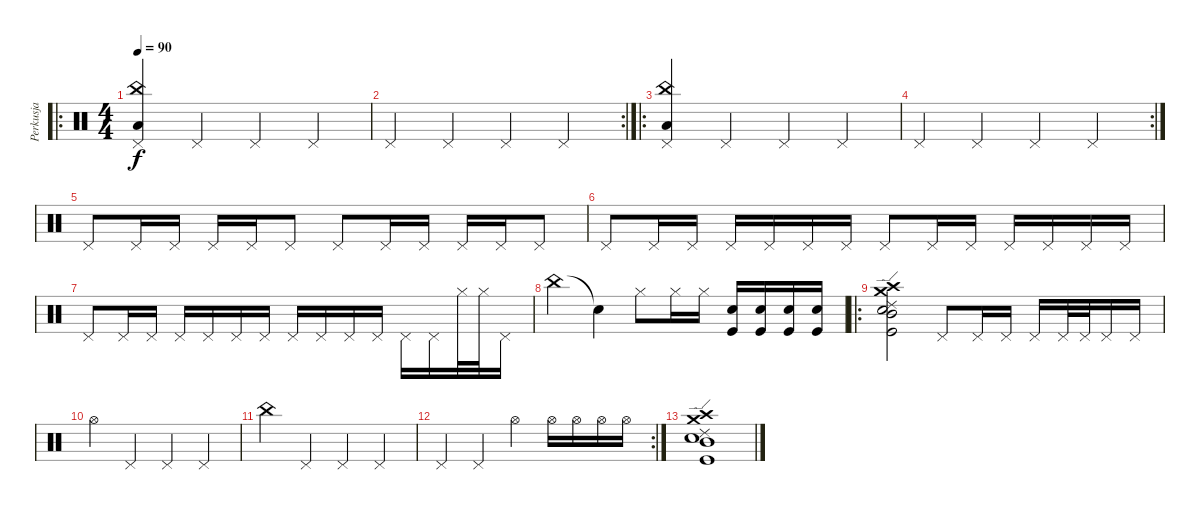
\track ("Perkusja" "Perkusja") {instrument percussion}
\staff {score}
\articulation defaults
\ro
\ts (4 4)
\tempo 90
\clef neutral
\ks c
("Pedal Hi-Hat (hit)" "China (hit)" "Low Tom (hit)").4{dy f} "Pedal Hi-Hat (hit)".4 "Pedal Hi-Hat (hit)".4 "Pedal Hi-Hat (hit)".4 |
\rc 2 "Pedal Hi-Hat (hit)".4 "Pedal Hi-Hat (hit)".4 "Pedal Hi-Hat (hit)".4 "Pedal Hi-Hat (hit)".4
|
\ro
("China (hit)" "Pedal Hi-Hat (hit)" "Low Tom (hit)").4 "Pedal Hi-Hat (hit)".4 "Pedal Hi-Hat (hit)".4 "Pedal Hi-Hat (hit)".4 |
\rc 2 "Pedal Hi-Hat (hit)".4 "Pedal Hi-Hat (hit)".4 "Pedal Hi-Hat (hit)".4 "Pedal Hi-Hat (hit)".4
|
"Pedal Hi-Hat (hit)".8 "Pedal Hi-Hat (hit)".16 "Pedal Hi-Hat (hit)".16 "Pedal Hi-Hat (hit)".16 "Pedal Hi-Hat (hit)".16 "Pedal Hi-Hat (hit)".8 "Pedal Hi-Hat (hit)".8 "Pedal Hi-Hat (hit)".16 "Pedal Hi-Hat (hit)".16 "Pedal Hi-Hat (hit)".16 "Pedal Hi-Hat (hit)".16 "Pedal Hi-Hat (hit)".8 |
"Pedal Hi-Hat (hit)".8 "Pedal Hi-Hat (hit)".16 "Pedal Hi-Hat (hit)".16 "Pedal Hi-Hat (hit)".16 "Pedal Hi-Hat (hit)".16 "Pedal Hi-Hat (hit)".16 "Pedal Hi-Hat (hit)".16 "Pedal Hi-Hat (hit)".8 "Pedal Hi-Hat (hit)".16 "Pedal Hi-Hat (hit)".16 "Pedal Hi-Hat (hit)".16 "Pedal Hi-Hat (hit)".16 "Pedal Hi-Hat (hit)".16 "Pedal Hi-Hat (hit)".16 |
"Pedal Hi-Hat (hit)".8 "Pedal Hi-Hat (hit)".16 "Pedal Hi-Hat (hit)".16 "Pedal Hi-Hat (hit)".16 "Pedal Hi-Hat (hit)".16 "Pedal Hi-Hat (hit)".16 "Pedal Hi-Hat (hit)".16 "Pedal Hi-Hat (hit)".16 "Pedal Hi-Hat (hit)".16 "Pedal Hi-Hat (hit)".16 "Pedal Hi-Hat (hit)".16 "Pedal Hi-Hat (hit)".16 "Pedal Hi-Hat (hit)".16 "Hi-Hat (closed)".32 "Hi-Hat (closed)".32 "Pedal Hi-Hat (hit)".16 |
"China (hit)".4 "Snare (hit)"{t}.4 "Hi-Hat (closed)".8 "Hi-Hat (closed)".16 "Hi-Hat (closed)".16 ("Electric Snare (hit)" "Kick (hit)").16 ("Electric Snare (hit)" "Kick (hit)").16 ("Electric Snare (hit)" "Kick (hit)").16 ("Electric Snare (hit)" "Kick (hit)").16 |
\ro
("Ride (edge) 2" "Crash medium (hit)" "Crash high (hit)" "Mid Tom (hit)" "Electric Snare (hit)" "Kick (hit)").2 "Pedal Hi-Hat (hit)".8 "Pedal Hi-Hat (hit)".16 "Pedal Hi-Hat (hit)".16 "Pedal Hi-Hat (hit)".16 "Pedal Hi-Hat (hit)".32 "Pedal Hi-Hat (hit)".32 "Pedal Hi-Hat (hit)".16 "Pedal Hi-Hat (hit)".16 |
"Hi-Hat (open)".4 "Pedal Hi-Hat (hit)".4 "Pedal Hi-Hat (hit)".4 "Pedal Hi-Hat (hit)".4 |
"China (hit)".4 "Pedal Hi-Hat (hit)".4 "Pedal Hi-Hat (hit)".4 "Pedal Hi-Hat (hit)".4 |
\rc 2 "Pedal Hi-Hat (hit)".4 "Pedal Hi-Hat (hit)".4 "Hi-Hat (open)".4 "Hi-Hat (open)".16 "Hi-Hat (open)".16 "Hi-Hat (open)".16 "Hi-Hat (open)".16
|
("Ride (edge) 2" "Crash medium (hit)" "Crash high (hit)" "Mid Tom (hit)" "Electric Snare (hit)" "Kick (hit)").1
